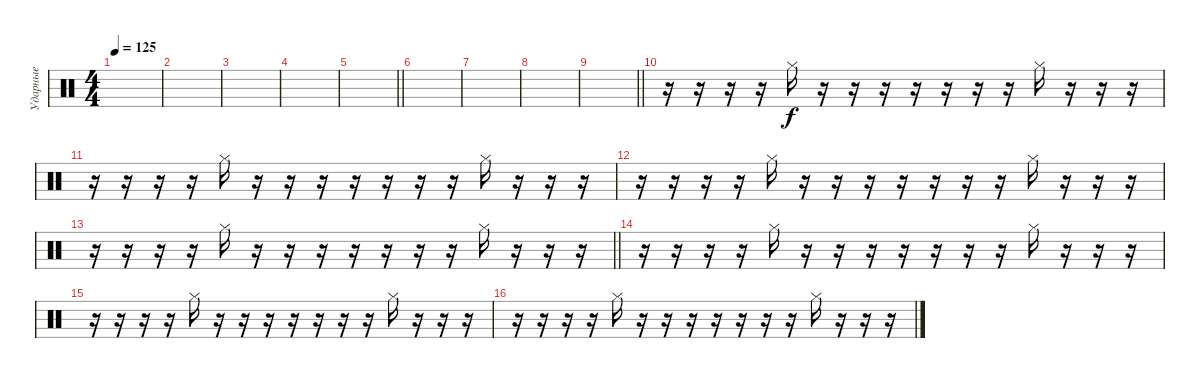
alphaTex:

\track ("Ударные" "Ударные") {instrument percussion}
\staff {score}
\articulation defaults
\ts (4 4)
\tempo 125
\clef neutral
\ks c
|
|
|
|
\barLineRight lightlight
|
|
|
|
\barLineRight lightlight
|
r.16 r.16 r.16 r.16 "Hi-Hat (closed)".16 r.16 r.16 r.16 r.16 r.16 r.16 r.16 "Hi-Hat (closed)".16 r.16 r.16 r.16 |
r.16 r.16 r.16 r.16 "Hi-Hat (closed)".16 r.16 r.16 r.16 r.16 r.16 r.16 r.16 "Hi-Hat (closed)".16 r.16 r.16 r.16 |
r.16 r.16 r.16 r.16 "Hi-Hat (closed)".16 r.16 r.16 r.16 r.16 r.16 r.16 r.16 "Hi-Hat (closed)".16 r.16 r.16 r.16 |
\barLineRight lightlight
r.16 r.16 r.16 r.16 "Hi-Hat (closed)".16 r.16 r.16 r.16 r.16 r.16 r.16 r.16 "Hi-Hat (closed)".16 r.16 r.16 r.16 |
r.16 r.16 r.16 r.16 "Hi-Hat (closed)".16 r.16 r.16 r.16 r.16 r.16 r.16 r.16 "Hi-Hat (closed)".16 r.16 r.16 r.16 |
r.16 r.16 r.16 r.16 "Hi-Hat (closed)".16 r.16 r.16 r.16 r.16 r.16 r.16 r.16 "Hi-Hat (closed)".16 r.16 r.16 r.16 |
r.16 r.16 r.16 r.16 "Hi-Hat (closed)".16 r.16 r.16 r.16 r.16 r.16 r.16 r.16 "Hi-Hat (closed)".16 r.16 r.16 r.16
